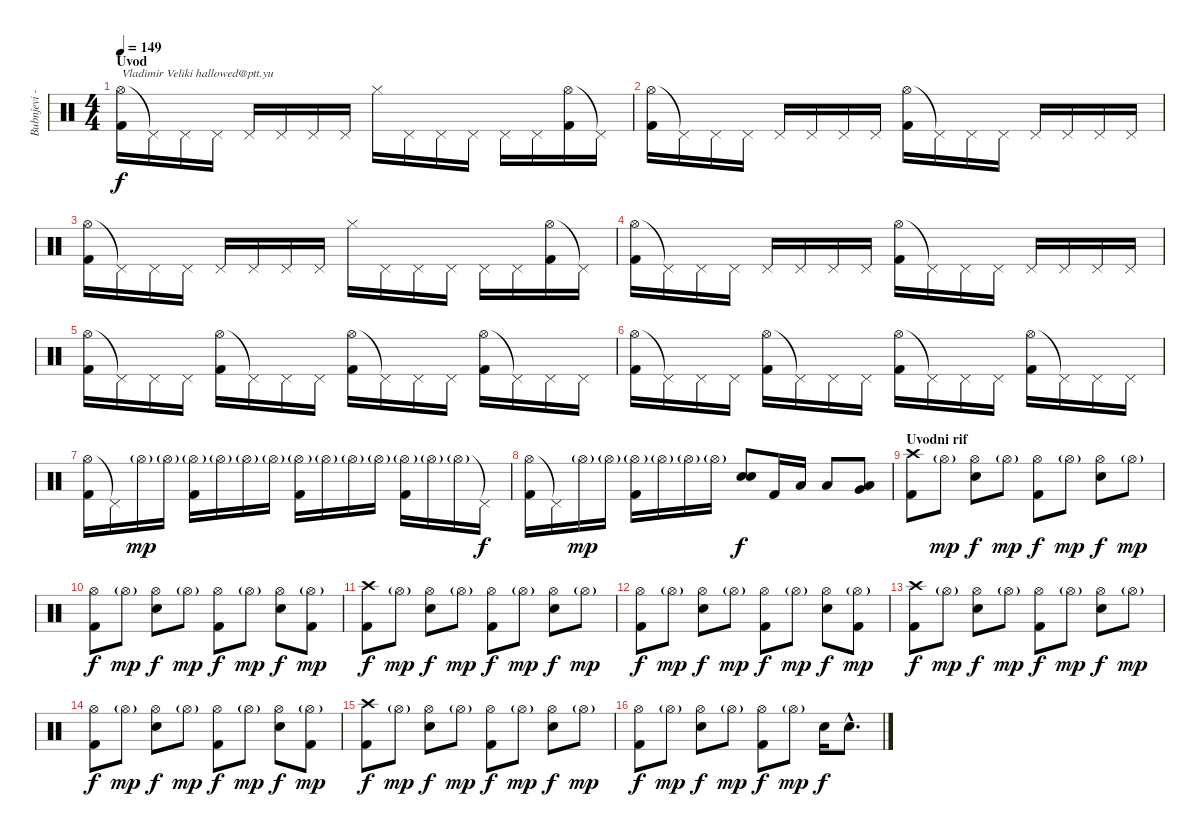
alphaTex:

\track ("Bubnjevi - Vladan Cvetkovic" "Bubnjevi -") {instrument percussion}
\staff {score}
\articulation defaults
\ts (4 4)
\section ("" "Uvod")
\tempo 149
\clef neutral
\ks c
("Hi-Hat (open)" "Kick (hit) 2").16{txt "Vladimir Veliki hallowed@ptt.yu" dy f} "Pedal Hi-Hat (hit)"{t}.16 "Pedal Hi-Hat (hit)".16 "Pedal Hi-Hat (hit)".16 "Pedal Hi-Hat (hit)".16 "Pedal Hi-Hat (hit)".16 "Pedal Hi-Hat (hit)".16 "Pedal Hi-Hat (hit)".16 "Hi-Hat (closed)".16 "Pedal Hi-Hat (hit)".16 "Pedal Hi-Hat (hit)".16 "Pedal Hi-Hat (hit)".16 "Pedal Hi-Hat (hit)".16 "Pedal Hi-Hat (hit)".16 ("Hi-Hat (open)" "Kick (hit) 2").16 "Pedal Hi-Hat (hit)"{t}.16 |
("Hi-Hat (open)" "Kick (hit) 2").16 "Pedal Hi-Hat (hit)"{t}.16 "Pedal Hi-Hat (hit)".16 "Pedal Hi-Hat (hit)".16 "Pedal Hi-Hat (hit)".16 "Pedal Hi-Hat (hit)".16 "Pedal Hi-Hat (hit)".16 "Pedal Hi-Hat (hit)".16 ("Hi-Hat (open)" "Kick (hit) 2").16 "Pedal Hi-Hat (hit)"{t}.16 "Pedal Hi-Hat (hit)".16 "Pedal Hi-Hat (hit)".16 "Pedal Hi-Hat (hit)".16 "Pedal Hi-Hat (hit)".16 "Pedal Hi-Hat (hit)".16 "Pedal Hi-Hat (hit)".16 |
("Hi-Hat (open)" "Kick (hit) 2").16 "Pedal Hi-Hat (hit)"{t}.16 "Pedal Hi-Hat (hit)".16 "Pedal Hi-Hat (hit)".16 "Pedal Hi-Hat (hit)".16 "Pedal Hi-Hat (hit)".16 "Pedal Hi-Hat (hit)".16 "Pedal Hi-Hat (hit)".16 "Hi-Hat (closed)".16 "Pedal Hi-Hat (hit)".16 "Pedal Hi-Hat (hit)".16 "Pedal Hi-Hat (hit)".16 "Pedal Hi-Hat (hit)".16 "Pedal Hi-Hat (hit)".16 ("Hi-Hat (open)" "Kick (hit) 2").16 "Pedal Hi-Hat (hit)"{t}.16 |
("Hi-Hat (open)" "Kick (hit) 2").16 "Pedal Hi-Hat (hit)"{t}.16 "Pedal Hi-Hat (hit)".16 "Pedal Hi-Hat (hit)".16 "Pedal Hi-Hat (hit)".16 "Pedal Hi-Hat (hit)".16 "Pedal Hi-Hat (hit)".16 "Pedal Hi-Hat (hit)".16 ("Hi-Hat (open)" "Kick (hit) 2").16 "Pedal Hi-Hat (hit)"{t}.16 "Pedal Hi-Hat (hit)".16 "Pedal Hi-Hat (hit)".16 "Pedal Hi-Hat (hit)".16 "Pedal Hi-Hat (hit)".16 "Pedal Hi-Hat (hit)".16 "Pedal Hi-Hat (hit)".16 |
("Hi-Hat (open)" "Kick (hit) 2").16 "Pedal Hi-Hat (hit)"{t}.16 "Pedal Hi-Hat (hit)".16 "Pedal Hi-Hat (hit)".16 ("Hi-Hat (open)" "Kick (hit) 2").16 "Pedal Hi-Hat (hit)"{t}.16 "Pedal Hi-Hat (hit)".16 "Pedal Hi-Hat (hit)".16 ("Hi-Hat (open)" "Kick (hit) 2").16 "Pedal Hi-Hat (hit)"{t}.16 "Pedal Hi-Hat (hit)".16 "Pedal Hi-Hat (hit)".16 ("Hi-Hat (open)" "Kick (hit) 2").16 "Pedal Hi-Hat (hit)"{t}.16 "Pedal Hi-Hat (hit)".16 "Pedal Hi-Hat (hit)".16 |
("Hi-Hat (open)" "Kick (hit) 2").16 "Pedal Hi-Hat (hit)"{t}.16 "Pedal Hi-Hat (hit)".16 "Pedal Hi-Hat (hit)".16 ("Hi-Hat (open)" "Kick (hit) 2").16 "Pedal Hi-Hat (hit)"{t}.16 "Pedal Hi-Hat (hit)".16 "Pedal Hi-Hat (hit)".16 ("Hi-Hat (open)" "Kick (hit) 2").16 "Pedal Hi-Hat (hit)"{t}.16 "Pedal Hi-Hat (hit)".16 "Pedal Hi-Hat (hit)".16 ("Hi-Hat (open)" "Kick (hit) 2").16 "Pedal Hi-Hat (hit)"{t}.16 "Pedal Hi-Hat (hit)".16 "Pedal Hi-Hat (hit)".16 |
("Hi-Hat (open)" "Kick (hit) 2").16 "Pedal Hi-Hat (hit)"{t}.16 "Hi-Hat (open)"{g}.16{dy mp} "Hi-Hat (open)"{g}.16 ("Hi-Hat (open)"{g} "Kick (hit) 2").16 "Hi-Hat (open)"{g}.16 "Hi-Hat (open)"{g}.16 "Hi-Hat (open)"{g}.16 ("Hi-Hat (open)"{g} "Kick (hit) 2").16 "Hi-Hat (open)"{g}.16 "Hi-Hat (open)"{g}.16 "Hi-Hat (open)"{g}.16 ("Hi-Hat (open)"{g} "Kick (hit) 2").16 "Hi-Hat (open)"{g}.16 "Hi-Hat (open)"{g}.16 "Pedal Hi-Hat (hit)"{t}.16{dy f} |
("Hi-Hat (open)" "Kick (hit) 2").16 "Pedal Hi-Hat (hit)"{t}.16 "Hi-Hat (open)"{g}.16{dy mp} "Hi-Hat (open)"{g}.16 ("Hi-Hat (open)"{g} "Kick (hit) 2").16 "Hi-Hat (open)"{g}.16 "Hi-Hat (open)"{g}.16 "Hi-Hat (open)"{g}.16 ("Electric Snare (hit)" "Electric Snare (hit)").8{bd 120 dy f} "Kick (hit) 2".16 "Low Tom (hit)".16 "Low Tom (hit)".8 ("Very Low Tom (hit)" "Low Tom (hit)").8{bd 120} |
\section ("" "Uvodni rif")
("Crash high (hit)" "Kick (hit) 2").8 "Hi-Hat (open)"{g}.8{dy mp} ("Hi-Hat (open)" "Electric Snare (hit)").8{dy f} "Hi-Hat (open)"{g}.8{dy mp} ("Hi-Hat (open)" "Kick (hit) 2").8{dy f} "Hi-Hat (open)"{g}.8{dy mp} ("Hi-Hat (open)" "Electric Snare (hit)").8{dy f} "Hi-Hat (open)"{g}.8{dy mp} |
("Hi-Hat (open)" "Kick (hit) 2").8{dy f} "Hi-Hat (open)"{g}.8{dy mp} ("Hi-Hat (open)" "Electric Snare (hit)").8{dy f} "Hi-Hat (open)"{g}.8{dy mp} ("Hi-Hat (open)" "Kick (hit) 2").8{dy f} "Hi-Hat (open)"{g}.8{dy mp} ("Hi-Hat (open)" "Electric Snare (hit)").8{dy f} ("Hi-Hat (open)"{g} "Kick (hit) 2").8{dy mp} |
("Crash high (hit)" "Kick (hit) 2").8{dy f} "Hi-Hat (open)"{g}.8{dy mp} ("Hi-Hat (open)" "Electric Snare (hit)").8{dy f} "Hi-Hat (open)"{g}.8{dy mp} ("Hi-Hat (open)" "Kick (hit) 2").8{dy f} "Hi-Hat (open)"{g}.8{dy mp} ("Hi-Hat (open)" "Electric Snare (hit)").8{dy f} "Hi-Hat (open)"{g}.8{dy mp} |
("Hi-Hat (open)" "Kick (hit) 2").8{dy f} "Hi-Hat (open)"{g}.8{dy mp} ("Hi-Hat (open)" "Electric Snare (hit)").8{dy f} "Hi-Hat (open)"{g}.8{dy mp} ("Hi-Hat (open)" "Kick (hit) 2").8{dy f} "Hi-Hat (open)"{g}.8{dy mp} ("Hi-Hat (open)" "Electric Snare (hit)").8{dy f} ("Hi-Hat (open)"{g} "Kick (hit) 2").8{dy mp} |
("Crash high (hit)" "Kick (hit) 2").8{dy f} "Hi-Hat (open)"{g}.8{dy mp} ("Hi-Hat (open)" "Electric Snare (hit)").8{dy f} "Hi-Hat (open)"{g}.8{dy mp} ("Hi-Hat (open)" "Kick (hit) 2").8{dy f} "Hi-Hat (open)"{g}.8{dy mp} ("Hi-Hat (open)" "Electric Snare (hit)").8{dy f} "Hi-Hat (open)"{g}.8{dy mp} |
("Hi-Hat (open)" "Kick (hit) 2").8{dy f} "Hi-Hat (open)"{g}.8{dy mp} ("Hi-Hat (open)" "Electric Snare (hit)").8{dy f} "Hi-Hat (open)"{g}.8{dy mp} ("Hi-Hat (open)" "Kick (hit) 2").8{dy f} "Hi-Hat (open)"{g}.8{dy mp} ("Hi-Hat (open)" "Electric Snare (hit)").8{dy f} ("Hi-Hat (open)"{g} "Kick (hit) 2").8{dy mp} |
("Crash high (hit)" "Kick (hit) 2").8{dy f} "Hi-Hat (open)"{g}.8{dy mp} ("Hi-Hat (open)" "Electric Snare (hit)").8{dy f} "Hi-Hat (open)"{g}.8{dy mp} ("Hi-Hat (open)" "Kick (hit) 2").8{dy f} "Hi-Hat (open)"{g}.8{dy mp} ("Hi-Hat (open)" "Electric Snare (hit)").8{dy f} "Hi-Hat (open)"{g}.8{dy mp} |
("Hi-Hat (open)" "Kick (hit) 2").8{dy f} "Hi-Hat (open)"{g}.8{dy mp} ("Hi-Hat (open)" "Electric Snare (hit)").8{dy f} "Hi-Hat (open)"{g}.8{dy mp} ("Hi-Hat (open)" "Kick (hit) 2").8{dy f} "Hi-Hat (open)"{g}.8{dy mp} "Electric Snare (hit)".16{dy f} "Electric Snare (hit)"{hac}.8{d}
